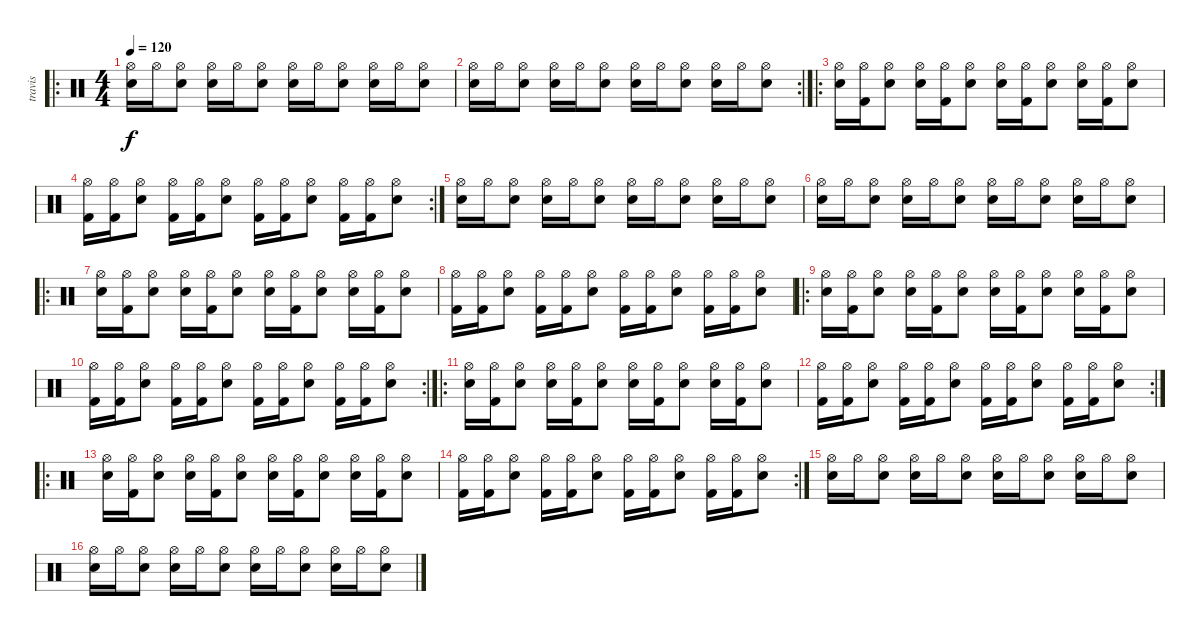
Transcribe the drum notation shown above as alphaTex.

\track ("travis" "travis") {instrument percussion}
\staff {score}
\articulation defaults
\ro
\ts (4 4)
\tempo 120
\clef neutral
\ks c
("Hi-Hat (open)" "Electric Snare (hit)").16{dy f} "Hi-Hat (open)".16 ("Hi-Hat (open)" "Electric Snare (hit)").8 ("Hi-Hat (open)" "Electric Snare (hit)").16 "Hi-Hat (open)".16 ("Hi-Hat (open)" "Electric Snare (hit)").8 ("Hi-Hat (open)" "Electric Snare (hit)").16 "Hi-Hat (open)".16 ("Hi-Hat (open)" "Electric Snare (hit)").8 ("Hi-Hat (open)" "Electric Snare (hit)").16 "Hi-Hat (open)".16 ("Hi-Hat (open)" "Electric Snare (hit)").8 |
\rc 2
("Hi-Hat (open)" "Electric Snare (hit)").16 "Hi-Hat (open)".16 ("Hi-Hat (open)" "Electric Snare (hit)").8 ("Hi-Hat (open)" "Electric Snare (hit)").16 "Hi-Hat (open)".16 ("Hi-Hat (open)" "Electric Snare (hit)").8 ("Hi-Hat (open)" "Electric Snare (hit)").16 "Hi-Hat (open)".16 ("Hi-Hat (open)" "Electric Snare (hit)").8 ("Hi-Hat (open)" "Electric Snare (hit)").16 "Hi-Hat (open)".16 ("Hi-Hat (open)" "Electric Snare (hit)").8 |
\ro
("Hi-Hat (open)" "Electric Snare (hit)").16 ("Hi-Hat (open)" "Kick (hit) 2").16 ("Hi-Hat (open)" "Electric Snare (hit)").8 ("Hi-Hat (open)" "Electric Snare (hit)").16 ("Hi-Hat (open)" "Kick (hit) 2").16 ("Hi-Hat (open)" "Electric Snare (hit)").8 ("Hi-Hat (open)" "Electric Snare (hit)").16 ("Hi-Hat (open)" "Kick (hit) 2").16 ("Hi-Hat (open)" "Electric Snare (hit)").8 ("Hi-Hat (open)" "Electric Snare (hit)").16 ("Hi-Hat (open)" "Kick (hit) 2").16 ("Hi-Hat (open)" "Electric Snare (hit)").8 |
\rc 2
("Hi-Hat (open)" "Kick (hit) 2").16 ("Hi-Hat (open)" "Kick (hit) 2").16 ("Hi-Hat (open)" "Electric Snare (hit)").8 ("Hi-Hat (open)" "Kick (hit) 2").16 ("Hi-Hat (open)" "Kick (hit) 2").16 ("Hi-Hat (open)" "Electric Snare (hit)").8 ("Hi-Hat (open)" "Kick (hit) 2").16 ("Hi-Hat (open)" "Kick (hit) 2").16 ("Hi-Hat (open)" "Electric Snare (hit)").8 ("Hi-Hat (open)" "Kick (hit) 2").16 ("Hi-Hat (open)" "Kick (hit) 2").16 ("Hi-Hat (open)" "Electric Snare (hit)").8 |
("Hi-Hat (open)" "Electric Snare (hit)").16 "Hi-Hat (open)".16 ("Hi-Hat (open)" "Electric Snare (hit)").8 ("Hi-Hat (open)" "Electric Snare (hit)").16 "Hi-Hat (open)".16 ("Hi-Hat (open)" "Electric Snare (hit)").8 ("Hi-Hat (open)" "Electric Snare (hit)").16 "Hi-Hat (open)".16 ("Hi-Hat (open)" "Electric Snare (hit)").8 ("Hi-Hat (open)" "Electric Snare (hit)").16 "Hi-Hat (open)".16 ("Hi-Hat (open)" "Electric Snare (hit)").8 |
("Hi-Hat (open)" "Electric Snare (hit)").16 "Hi-Hat (open)".16 ("Hi-Hat (open)" "Electric Snare (hit)").8 ("Hi-Hat (open)" "Electric Snare (hit)").16 "Hi-Hat (open)".16 ("Hi-Hat (open)" "Electric Snare (hit)").8 ("Hi-Hat (open)" "Electric Snare (hit)").16 "Hi-Hat (open)".16 ("Hi-Hat (open)" "Electric Snare (hit)").8 ("Hi-Hat (open)" "Electric Snare (hit)").16 "Hi-Hat (open)".16 ("Hi-Hat (open)" "Electric Snare (hit)").8 |
\ro
("Hi-Hat (open)" "Electric Snare (hit)").16 ("Hi-Hat (open)" "Kick (hit) 2").16 ("Hi-Hat (open)" "Electric Snare (hit)").8 ("Hi-Hat (open)" "Electric Snare (hit)").16 ("Hi-Hat (open)" "Kick (hit) 2").16 ("Hi-Hat (open)" "Electric Snare (hit)").8 ("Hi-Hat (open)" "Electric Snare (hit)").16 ("Hi-Hat (open)" "Kick (hit) 2").16 ("Hi-Hat (open)" "Electric Snare (hit)").8 ("Hi-Hat (open)" "Electric Snare (hit)").16 ("Hi-Hat (open)" "Kick (hit) 2").16 ("Hi-Hat (open)" "Electric Snare (hit)").8 |
("Hi-Hat (open)" "Kick (hit) 2").16 ("Hi-Hat (open)" "Kick (hit) 2").16 ("Hi-Hat (open)" "Electric Snare (hit)").8 ("Hi-Hat (open)" "Kick (hit) 2").16 ("Hi-Hat (open)" "Kick (hit) 2").16 ("Hi-Hat (open)" "Electric Snare (hit)").8 ("Hi-Hat (open)" "Kick (hit) 2").16 ("Hi-Hat (open)" "Kick (hit) 2").16 ("Hi-Hat (open)" "Electric Snare (hit)").8 ("Hi-Hat (open)" "Kick (hit) 2").16 ("Hi-Hat (open)" "Kick (hit) 2").16 ("Hi-Hat (open)" "Electric Snare (hit)").8 |
\ro
("Hi-Hat (open)" "Electric Snare (hit)").16 ("Hi-Hat (open)" "Kick (hit) 2").16 ("Hi-Hat (open)" "Electric Snare (hit)").8 ("Hi-Hat (open)" "Electric Snare (hit)").16 ("Hi-Hat (open)" "Kick (hit) 2").16 ("Hi-Hat (open)" "Electric Snare (hit)").8 ("Hi-Hat (open)" "Electric Snare (hit)").16 ("Hi-Hat (open)" "Kick (hit) 2").16 ("Hi-Hat (open)" "Electric Snare (hit)").8 ("Hi-Hat (open)" "Electric Snare (hit)").16 ("Hi-Hat (open)" "Kick (hit) 2").16 ("Hi-Hat (open)" "Electric Snare (hit)").8 |
\rc 2
("Hi-Hat (open)" "Kick (hit) 2").16 ("Hi-Hat (open)" "Kick (hit) 2").16 ("Hi-Hat (open)" "Electric Snare (hit)").8 ("Hi-Hat (open)" "Kick (hit) 2").16 ("Hi-Hat (open)" "Kick (hit) 2").16 ("Hi-Hat (open)" "Electric Snare (hit)").8 ("Hi-Hat (open)" "Kick (hit) 2").16 ("Hi-Hat (open)" "Kick (hit) 2").16 ("Hi-Hat (open)" "Electric Snare (hit)").8 ("Hi-Hat (open)" "Kick (hit) 2").16 ("Hi-Hat (open)" "Kick (hit) 2").16 ("Hi-Hat (open)" "Electric Snare (hit)").8 |
\ro
("Hi-Hat (open)" "Electric Snare (hit)").16 ("Hi-Hat (open)" "Kick (hit) 2").16 ("Hi-Hat (open)" "Electric Snare (hit)").8 ("Hi-Hat (open)" "Electric Snare (hit)").16 ("Hi-Hat (open)" "Kick (hit) 2").16 ("Hi-Hat (open)" "Electric Snare (hit)").8 ("Hi-Hat (open)" "Electric Snare (hit)").16 ("Hi-Hat (open)" "Kick (hit) 2").16 ("Hi-Hat (open)" "Electric Snare (hit)").8 ("Hi-Hat (open)" "Electric Snare (hit)").16 ("Hi-Hat (open)" "Kick (hit) 2").16 ("Hi-Hat (open)" "Electric Snare (hit)").8 |
\rc 2
("Hi-Hat (open)" "Kick (hit) 2").16 ("Hi-Hat (open)" "Kick (hit) 2").16 ("Hi-Hat (open)" "Electric Snare (hit)").8 ("Hi-Hat (open)" "Kick (hit) 2").16 ("Hi-Hat (open)" "Kick (hit) 2").16 ("Hi-Hat (open)" "Electric Snare (hit)").8 ("Hi-Hat (open)" "Kick (hit) 2").16 ("Hi-Hat (open)" "Kick (hit) 2").16 ("Hi-Hat (open)" "Electric Snare (hit)").8 ("Hi-Hat (open)" "Kick (hit) 2").16 ("Hi-Hat (open)" "Kick (hit) 2").16 ("Hi-Hat (open)" "Electric Snare (hit)").8 |
\ro
("Hi-Hat (open)" "Electric Snare (hit)").16 ("Hi-Hat (open)" "Kick (hit) 2").16 ("Hi-Hat (open)" "Electric Snare (hit)").8 ("Hi-Hat (open)" "Electric Snare (hit)").16 ("Hi-Hat (open)" "Kick (hit) 2").16 ("Hi-Hat (open)" "Electric Snare (hit)").8 ("Hi-Hat (open)" "Electric Snare (hit)").16 ("Hi-Hat (open)" "Kick (hit) 2").16 ("Hi-Hat (open)" "Electric Snare (hit)").8 ("Hi-Hat (open)" "Electric Snare (hit)").16 ("Hi-Hat (open)" "Kick (hit) 2").16 ("Hi-Hat (open)" "Electric Snare (hit)").8 |
\rc 2
("Hi-Hat (open)" "Kick (hit) 2").16 ("Hi-Hat (open)" "Kick (hit) 2").16 ("Hi-Hat (open)" "Electric Snare (hit)").8 ("Hi-Hat (open)" "Kick (hit) 2").16 ("Hi-Hat (open)" "Kick (hit) 2").16 ("Hi-Hat (open)" "Electric Snare (hit)").8 ("Hi-Hat (open)" "Kick (hit) 2").16 ("Hi-Hat (open)" "Kick (hit) 2").16 ("Hi-Hat (open)" "Electric Snare (hit)").8 ("Hi-Hat (open)" "Kick (hit) 2").16 ("Hi-Hat (open)" "Kick (hit) 2").16 ("Hi-Hat (open)" "Electric Snare (hit)").8 |
("Hi-Hat (open)" "Electric Snare (hit)").16 "Hi-Hat (open)".16 ("Hi-Hat (open)" "Electric Snare (hit)").8 ("Hi-Hat (open)" "Electric Snare (hit)").16 "Hi-Hat (open)".16 ("Hi-Hat (open)" "Electric Snare (hit)").8 ("Hi-Hat (open)" "Electric Snare (hit)").16 "Hi-Hat (open)".16 ("Hi-Hat (open)" "Electric Snare (hit)").8 ("Hi-Hat (open)" "Electric Snare (hit)").16 "Hi-Hat (open)".16 ("Hi-Hat (open)" "Electric Snare (hit)").8 |
("Hi-Hat (open)" "Electric Snare (hit)").16 "Hi-Hat (open)".16 ("Hi-Hat (open)" "Electric Snare (hit)").8 ("Hi-Hat (open)" "Electric Snare (hit)").16 "Hi-Hat (open)".16 ("Hi-Hat (open)" "Electric Snare (hit)").8 ("Hi-Hat (open)" "Electric Snare (hit)").16 "Hi-Hat (open)".16 ("Hi-Hat (open)" "Electric Snare (hit)").8 ("Hi-Hat (open)" "Electric Snare (hit)").16 "Hi-Hat (open)".16 ("Hi-Hat (open)" "Electric Snare (hit)").8
